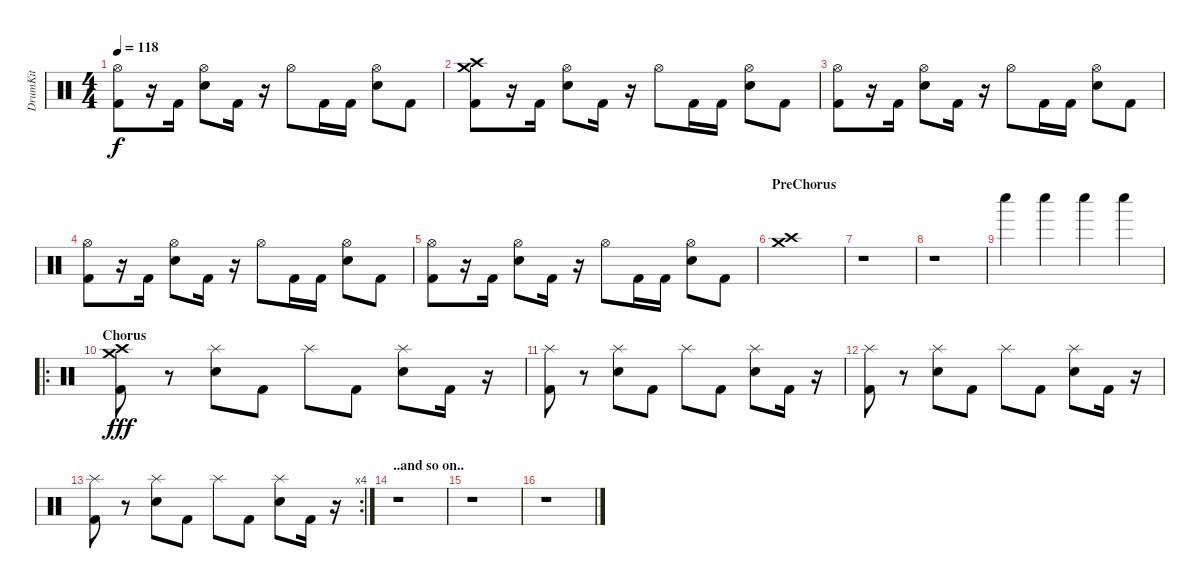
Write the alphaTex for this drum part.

\track ("DrumKit" "DrumKit") {instrument percussion}
\staff {score}
\articulation defaults
\ts (4 4)
\tempo 118
\clef neutral
\ks c
("Hi-Hat (open)" "Kick (hit) 2").8{dy f} r.16 "Kick (hit) 2".16 ("Hi-Hat (open)" "Snare (hit) 2").8 "Kick (hit) 2".16 r.16 "Hi-Hat (open)".8 "Kick (hit) 2".16 "Kick (hit) 2".16 ("Hi-Hat (open)" "Snare (hit) 2").8 "Kick (hit) 2".8 |
("Crash medium (hit)" "Crash high (hit)" "Kick (hit) 2").8 r.16 "Kick (hit) 2".16 ("Hi-Hat (open)" "Snare (hit) 2").8 "Kick (hit) 2".16 r.16 "Hi-Hat (open)".8 "Kick (hit) 2".16 "Kick (hit) 2".16 ("Hi-Hat (open)" "Snare (hit) 2").8 "Kick (hit) 2".8 |
("Hi-Hat (open)" "Kick (hit) 2").8 r.16 "Kick (hit) 2".16 ("Hi-Hat (open)" "Snare (hit) 2").8 "Kick (hit) 2".16 r.16 "Hi-Hat (open)".8 "Kick (hit) 2".16 "Kick (hit) 2".16 ("Hi-Hat (open)" "Snare (hit) 2").8 "Kick (hit) 2".8 |
("Hi-Hat (open)" "Kick (hit) 2").8 r.16 "Kick (hit) 2".16 ("Hi-Hat (open)" "Snare (hit) 2").8 "Kick (hit) 2".16 r.16 "Hi-Hat (open)".8 "Kick (hit) 2".16 "Kick (hit) 2".16 ("Hi-Hat (open)" "Snare (hit) 2").8 "Kick (hit) 2".8 |
("Hi-Hat (open)" "Kick (hit) 2").8 r.16 "Kick (hit) 2".16 ("Hi-Hat (open)" "Snare (hit) 2").8 "Kick (hit) 2".16 r.16 "Hi-Hat (open)".8 "Kick (hit) 2".16 "Kick (hit) 2".16 ("Hi-Hat (open)" "Snare (hit) 2").8 "Kick (hit) 2".8 |
\section ("" "PreChorus")
("Crash medium (hit)" "Crash high (hit)").1 |
r.1 |
r.1 |
"Whistle low (hit)".4 "Whistle low (hit)".4 "Whistle low (hit)".4 "Whistle low (hit)".4 |
\ro
\section ("" "Chorus")
("Crash high (hit)" "Crash medium (hit)" "Kick (hit) 2").8{dy fff} r.8 ("Splash (hit)" "Snare (hit) 2").8 "Kick (hit) 2".8 "Splash (hit)".8 "Kick (hit) 2".8 ("Splash (hit)" "Snare (hit) 2").8 "Kick (hit) 2".16 r.16 |
("Splash (hit)" "Kick (hit) 2").8 r.8 ("Splash (hit)" "Snare (hit) 2").8 "Kick (hit) 2".8 "Splash (hit)".8 "Kick (hit) 2".8 ("Splash (hit)" "Snare (hit) 2").8 "Kick (hit) 2".16 r.16 |
("Splash (hit)" "Kick (hit) 2").8 r.8 ("Splash (hit)" "Snare (hit) 2").8 "Kick (hit) 2".8 "Splash (hit)".8 "Kick (hit) 2".8 ("Splash (hit)" "Snare (hit) 2").8 "Kick (hit) 2".16 r.16 |
\rc 4
("Splash (hit)" "Kick (hit) 2").8 r.8 ("Splash (hit)" "Snare (hit) 2").8 "Kick (hit) 2".8 "Splash (hit)".8 "Kick (hit) 2".8 ("Splash (hit)" "Snare (hit) 2").8 "Kick (hit) 2".16 r.16 |
\section ("" "..and so on..")
r.1 |
r.1 |
r.1
